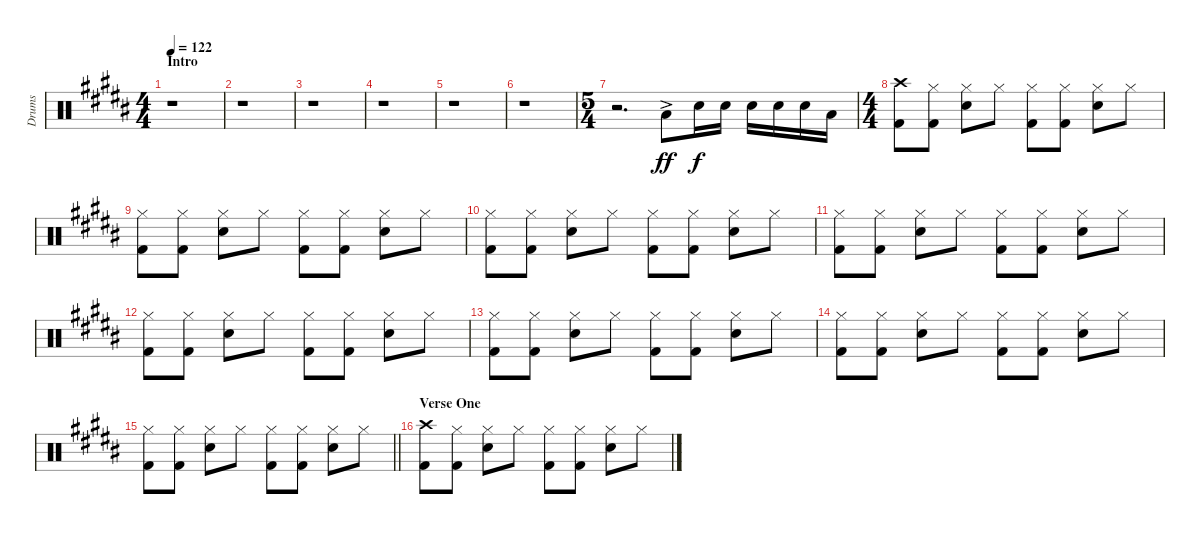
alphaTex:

\track ("Drums" "Drums") {instrument percussion}
\staff {score}
\articulation defaults
\ts (4 4)
\section ("" "Intro")
\tempo 122
\clef neutral
\ks b
r.1{dy ff} |
r.1 |
r.1 |
r.1 |
r.1 |
r.1 |
\ts (5 4)
r.2{d} "Low Tom (hit)"{ac}.8 "Electric Snare (hit)".16{dy f volume 16} "Snare (hit) 2".16 "Snare (hit) 2".16 "Snare (hit) 2".16 "Snare (hit) 2".16 "Low Tom (hit)".16 |
\ts (4 4)
("Crash high (hit)" "Kick (hit) 2").8 ("Hi-Hat (closed)" "Kick (hit) 2").8 ("Hi-Hat (closed)" "Snare (hit) 2").8 "Hi-Hat (closed)".8 ("Hi-Hat (closed)" "Kick (hit) 2").8 ("Hi-Hat (closed)" "Kick (hit) 2").8 ("Hi-Hat (closed)" "Snare (hit) 2").8 "Hi-Hat (closed)".8 |
("Hi-Hat (closed)" "Kick (hit) 2").8 ("Hi-Hat (closed)" "Kick (hit) 2").8 ("Hi-Hat (closed)" "Snare (hit) 2").8 "Hi-Hat (closed)".8 ("Hi-Hat (closed)" "Kick (hit) 2").8 ("Hi-Hat (closed)" "Kick (hit) 2").8 ("Hi-Hat (closed)" "Snare (hit) 2").8 "Hi-Hat (closed)".8 |
("Hi-Hat (closed)" "Kick (hit) 2").8 ("Hi-Hat (closed)" "Kick (hit) 2").8 ("Hi-Hat (closed)" "Snare (hit) 2").8 "Hi-Hat (closed)".8 ("Hi-Hat (closed)" "Kick (hit) 2").8 ("Hi-Hat (closed)" "Kick (hit) 2").8 ("Hi-Hat (closed)" "Snare (hit) 2").8 "Hi-Hat (closed)".8 |
("Hi-Hat (closed)" "Kick (hit) 2").8 ("Hi-Hat (closed)" "Kick (hit) 2").8 ("Hi-Hat (closed)" "Snare (hit) 2").8 "Hi-Hat (closed)".8 ("Hi-Hat (closed)" "Kick (hit) 2").8 ("Hi-Hat (closed)" "Kick (hit) 2").8 ("Hi-Hat (closed)" "Snare (hit) 2").8 "Hi-Hat (closed)".8 |
("Hi-Hat (closed)" "Kick (hit) 2").8 ("Hi-Hat (closed)" "Kick (hit) 2").8 ("Hi-Hat (closed)" "Snare (hit) 2").8 "Hi-Hat (closed)".8 ("Hi-Hat (closed)" "Kick (hit) 2").8 ("Hi-Hat (closed)" "Kick (hit) 2").8 ("Hi-Hat (closed)" "Snare (hit) 2").8 "Hi-Hat (closed)".8 |
("Hi-Hat (closed)" "Kick (hit) 2").8 ("Hi-Hat (closed)" "Kick (hit) 2").8 ("Hi-Hat (closed)" "Snare (hit) 2").8 "Hi-Hat (closed)".8 ("Hi-Hat (closed)" "Kick (hit) 2").8 ("Hi-Hat (closed)" "Kick (hit) 2").8 ("Hi-Hat (closed)" "Snare (hit) 2").8 "Hi-Hat (closed)".8 |
("Hi-Hat (closed)" "Kick (hit) 2").8 ("Hi-Hat (closed)" "Kick (hit) 2").8 ("Hi-Hat (closed)" "Snare (hit) 2").8 "Hi-Hat (closed)".8 ("Hi-Hat (closed)" "Kick (hit) 2").8 ("Hi-Hat (closed)" "Kick (hit) 2").8 ("Hi-Hat (closed)" "Snare (hit) 2").8 "Hi-Hat (closed)".8 |
\barLineRight lightlight
("Hi-Hat (closed)" "Kick (hit) 2").8 ("Hi-Hat (closed)" "Kick (hit) 2").8 ("Hi-Hat (closed)" "Snare (hit) 2").8 "Hi-Hat (closed)".8 ("Hi-Hat (closed)" "Kick (hit) 2").8 ("Hi-Hat (closed)" "Kick (hit) 2").8 ("Hi-Hat (closed)" "Snare (hit) 2").8 "Hi-Hat (closed)".8 |
\section ("" "Verse One")
("Crash high (hit)" "Kick (hit) 2").8 ("Hi-Hat (closed)" "Kick (hit) 2").8 ("Hi-Hat (closed)" "Snare (hit) 2").8 "Hi-Hat (closed)".8 ("Hi-Hat (closed)" "Kick (hit) 2").8 ("Hi-Hat (closed)" "Kick (hit) 2").8 ("Hi-Hat (closed)" "Snare (hit) 2").8 "Hi-Hat (closed)".8
